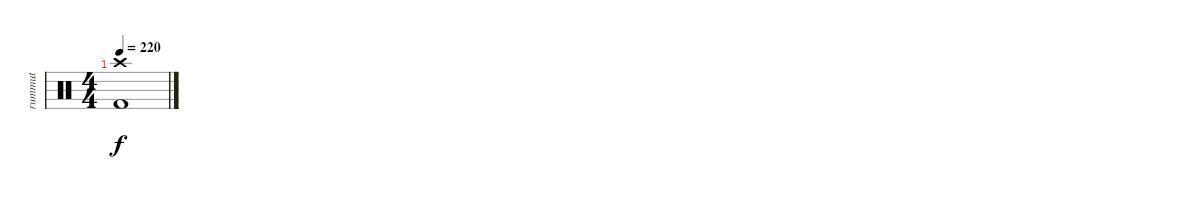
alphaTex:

\track ("rummut" "rummut") {instrument percussion}
\staff {score}
\articulation defaults
\ts (4 4)
\tempo 220
\clef neutral
\ks c
("Crash high (hit)" "Kick (hit) 2").1{dy f}
